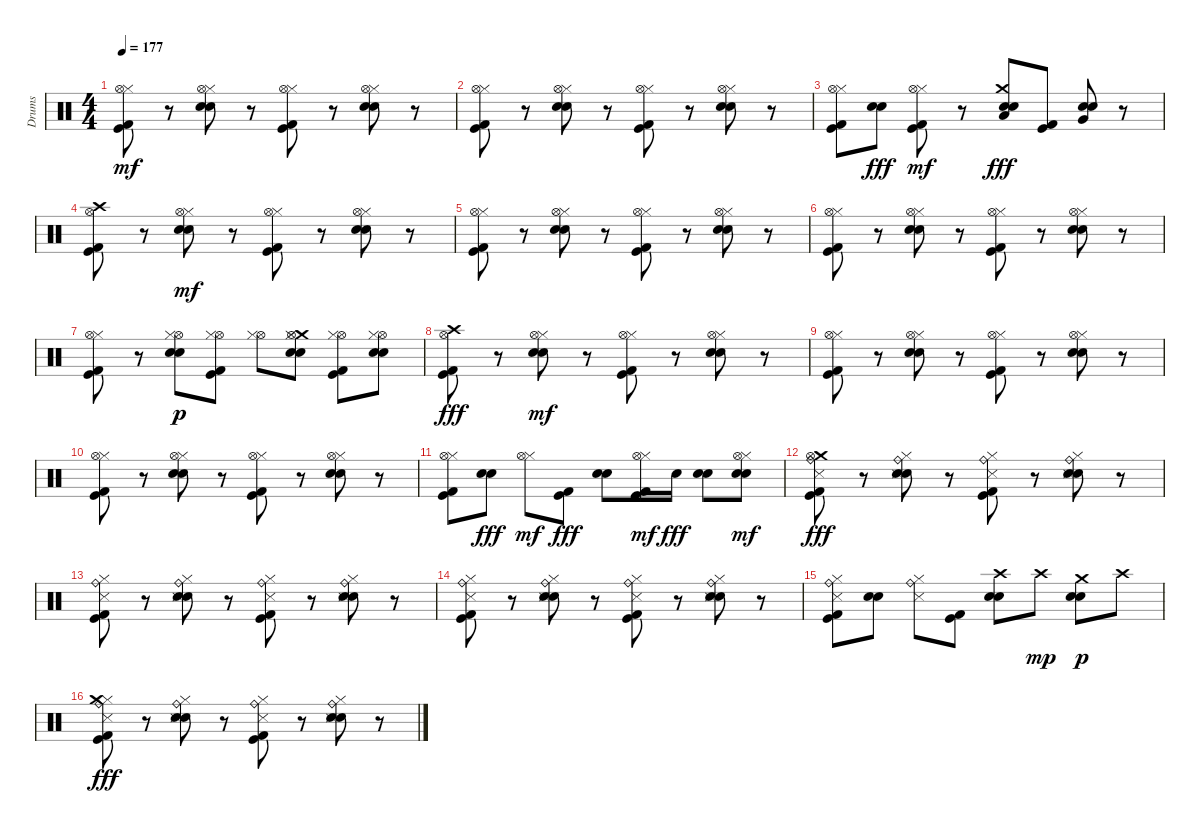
\track ("Drums" "Drums") {instrument percussion}
\staff {score}
\articulation defaults
\ts (4 4)
\tempo 177
\clef neutral
\ks c
("Hi-Hat (closed)" "Kick (hit) 2" "Kick (hit)" "Hi-Hat (open)").8{dy mf} r.8 ("Hi-Hat (closed)" "Electric Snare (hit)" "Snare (hit) 2" "Hi-Hat (open)").8 r.8 ("Hi-Hat (closed)" "Kick (hit) 2" "Kick (hit)" "Hi-Hat (open)").8 r.8 ("Hi-Hat (closed)" "Electric Snare (hit)" "Snare (hit) 2" "Hi-Hat (open)").8 r.8 |
("Hi-Hat (closed)" "Kick (hit) 2" "Kick (hit)" "Hi-Hat (open)").8 r.8 ("Hi-Hat (closed)" "Electric Snare (hit)" "Snare (hit) 2" "Hi-Hat (open)").8 r.8 ("Hi-Hat (closed)" "Kick (hit) 2" "Kick (hit)" "Hi-Hat (open)").8 r.8 ("Hi-Hat (closed)" "Electric Snare (hit)" "Snare (hit) 2" "Hi-Hat (open)").8 r.8 |
("Kick (hit) 2" "Kick (hit)" "Hi-Hat (closed)" "Hi-Hat (open)").8 ("Electric Snare (hit)" "Snare (hit) 2").8{dy fff} ("Kick (hit) 2" "Kick (hit)" "Hi-Hat (closed)" "Hi-Hat (open)").8{dy mf} r.8 ("Electric Snare (hit)" "Snare (hit) 2" "Crash medium (hit)" "Low Tom (hit)").8{dy fff} ("Kick (hit) 2" "Kick (hit)").8 ("Electric Snare (hit)" "Snare (hit) 2" "Very Low Tom (hit)").8 r.8 |
("Crash high (hit)" "Kick (hit) 2" "Kick (hit)" "Hi-Hat (open)").8 r.8 ("Hi-Hat (closed)" "Electric Snare (hit)" "Snare (hit) 2" "Hi-Hat (open)").8{dy mf} r.8 ("Hi-Hat (closed)" "Kick (hit) 2" "Kick (hit)" "Hi-Hat (open)").8 r.8 ("Hi-Hat (closed)" "Electric Snare (hit)" "Snare (hit) 2" "Hi-Hat (open)").8 r.8 |
("Hi-Hat (closed)" "Kick (hit) 2" "Kick (hit)" "Hi-Hat (open)").8 r.8 ("Hi-Hat (closed)" "Electric Snare (hit)" "Snare (hit) 2" "Hi-Hat (open)").8 r.8 ("Hi-Hat (closed)" "Kick (hit) 2" "Kick (hit)" "Hi-Hat (open)").8 r.8 ("Hi-Hat (closed)" "Electric Snare (hit)" "Snare (hit) 2" "Hi-Hat (open)").8 r.8 |
("Hi-Hat (closed)" "Kick (hit) 2" "Kick (hit)" "Hi-Hat (open)").8 r.8 ("Hi-Hat (closed)" "Electric Snare (hit)" "Snare (hit) 2" "Hi-Hat (open)").8 r.8 ("Hi-Hat (closed)" "Kick (hit) 2" "Kick (hit)" "Hi-Hat (open)").8 r.8 ("Hi-Hat (closed)" "Electric Snare (hit)" "Snare (hit) 2" "Hi-Hat (open)").8 r.8 |
("Kick (hit)" "Kick (hit) 2" "Hi-Hat (closed)" "Hi-Hat (open)").8 r.8 ("Electric Snare (hit)" "Snare (hit) 2" "Hi-Hat (open)" "Hi-Hat (closed)").8{dy p} ("Kick (hit) 2" "Kick (hit)" "Hi-Hat (open)" "Hi-Hat (closed)").8 ("Hi-Hat (open)" "Hi-Hat (closed)").8 ("Electric Snare (hit)" "Snare (hit) 2" "Crash medium (hit)" "Hi-Hat (open)" "Hi-Hat (closed)").8 ("Kick (hit) 2" "Kick (hit)" "Hi-Hat (open)" "Hi-Hat (closed)").8 ("Electric Snare (hit)" "Snare (hit) 2" "Hi-Hat (open)" "Hi-Hat (closed)").8 |
("Crash high (hit)" "Kick (hit) 2" "Kick (hit)" "Hi-Hat (open)").8{dy fff} r.8 ("Hi-Hat (closed)" "Electric Snare (hit)" "Snare (hit) 2" "Hi-Hat (open)").8{dy mf} r.8 ("Hi-Hat (closed)" "Kick (hit) 2" "Kick (hit)" "Hi-Hat (open)").8 r.8 ("Hi-Hat (closed)" "Electric Snare (hit)" "Snare (hit) 2" "Hi-Hat (open)").8 r.8 |
("Hi-Hat (closed)" "Kick (hit) 2" "Kick (hit)" "Hi-Hat (open)").8 r.8 ("Hi-Hat (closed)" "Electric Snare (hit)" "Snare (hit) 2" "Hi-Hat (open)").8 r.8 ("Hi-Hat (closed)" "Kick (hit) 2" "Kick (hit)" "Hi-Hat (open)").8 r.8 ("Hi-Hat (closed)" "Electric Snare (hit)" "Snare (hit) 2" "Hi-Hat (open)").8 r.8 |
("Hi-Hat (closed)" "Kick (hit) 2" "Kick (hit)" "Hi-Hat (open)").8 r.8 ("Hi-Hat (closed)" "Electric Snare (hit)" "Snare (hit) 2" "Hi-Hat (open)").8 r.8 ("Hi-Hat (closed)" "Kick (hit) 2" "Kick (hit)" "Hi-Hat (open)").8 r.8 ("Hi-Hat (closed)" "Electric Snare (hit)" "Snare (hit) 2" "Hi-Hat (open)").8 r.8 |
("Kick (hit)" "Kick (hit) 2" "Hi-Hat (closed)" "Hi-Hat (open)").8 ("Electric Snare (hit)" "Snare (hit) 2").8{dy fff} ("Hi-Hat (closed)" "Hi-Hat (open)").8{dy mf} ("Kick (hit) 2" "Kick (hit)").8{dy fff} ("Electric Snare (hit)" "Snare (hit) 2").8 ("Kick (hit) 2" "Kick (hit)" "Hi-Hat (closed)" "Hi-Hat (open)").16{dy mf} "Snare (hit) 2".16{dy fff} ("Electric Snare (hit)" "Snare (hit) 2").8 ("Electric Snare (hit)" "Snare (hit) 2" "Hi-Hat (closed)" "Hi-Hat (open)").8{dy mf} |
("Crash medium (hit)" "Kick (hit) 2" "Kick (hit)" "Hi-Hat (open)" "Snare (side stick) 3" "Ride (bell)").8{dy fff} r.8 ("Hi-Hat (closed)" "Electric Snare (hit)" "Snare (hit) 2" "Snare (side stick) 3" "Ride (bell)").8 r.8 ("Hi-Hat (closed)" "Kick (hit) 2" "Kick (hit)" "Snare (side stick) 3" "Ride (bell)").8 r.8 ("Hi-Hat (closed)" "Electric Snare (hit)" "Snare (hit) 2" "Snare (side stick) 3" "Ride (bell)").8 r.8 |
("Hi-Hat (closed)" "Kick (hit) 2" "Kick (hit)" "Snare (side stick) 3" "Ride (bell)").8 r.8 ("Hi-Hat (closed)" "Electric Snare (hit)" "Snare (hit) 2" "Snare (side stick) 3" "Ride (bell)").8 r.8 ("Hi-Hat (closed)" "Kick (hit) 2" "Kick (hit)" "Snare (side stick) 3" "Ride (bell)").8 r.8 ("Hi-Hat (closed)" "Electric Snare (hit)" "Snare (hit) 2" "Snare (side stick) 3" "Ride (bell)").8 r.8 |
("Hi-Hat (closed)" "Kick (hit) 2" "Kick (hit)" "Ride (bell)" "Snare (side stick) 3").8 r.8 ("Hi-Hat (closed)" "Electric Snare (hit)" "Snare (hit) 2" "Ride (bell)" "Snare (side stick) 3").8 r.8 ("Hi-Hat (closed)" "Kick (hit) 2" "Kick (hit)" "Ride (bell)" "Snare (side stick) 3").8 r.8 ("Hi-Hat (closed)" "Electric Snare (hit)" "Snare (hit) 2" "Ride (bell)" "Snare (side stick) 3").8 r.8 |
("Kick (hit) 2" "Kick (hit)" "Ride (bell)" "Hi-Hat (closed)" "Snare (side stick) 3").8 ("Electric Snare (hit)" "Snare (hit) 2").8 ("Ride (bell)" "Hi-Hat (closed)" "Snare (side stick) 3").8 ("Kick (hit) 2" "Kick (hit)").8 ("Electric Snare (hit)" "Snare (hit) 2" "Crash high (hit)").8 "Crash high (hit)".8{dy mp} ("Electric Snare (hit)" "Snare (hit) 2" "Crash medium (hit)").8{dy p} "Crash high (hit)".8 |
("Hi-Hat (closed)" "Kick (hit) 2" "Kick (hit)" "Snare (side stick) 3" "Ride (bell)" "Crash medium (hit)").8{dy fff} r.8 ("Hi-Hat (closed)" "Electric Snare (hit)" "Snare (hit) 2" "Snare (side stick) 3" "Ride (bell)").8 r.8 ("Hi-Hat (closed)" "Kick (hit) 2" "Kick (hit)" "Snare (side stick) 3" "Ride (bell)").8 r.8 ("Hi-Hat (closed)" "Electric Snare (hit)" "Snare (hit) 2" "Snare (side stick) 3" "Ride (bell)").8 r.8
